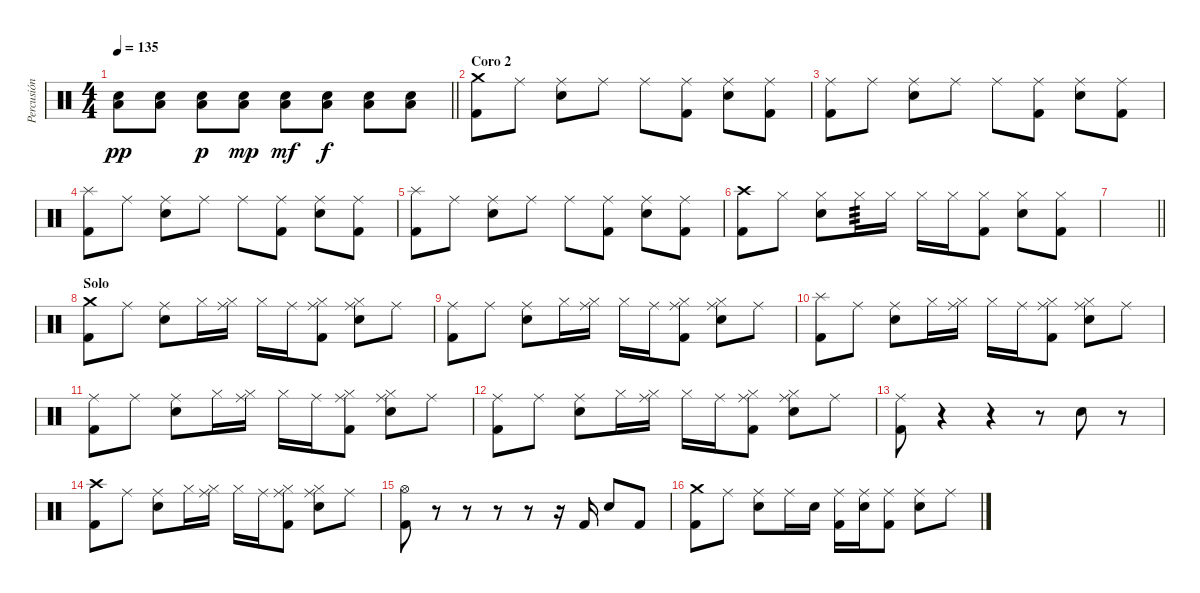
\track ("Percusión" "Percusión") {instrument percussion}
\staff {score}
\articulation defaults
\ts (4 4)
\tempo 135
\clef neutral
\barLineRight lightlight
\ks c
("Low Floor Tom (hit)" "Electric Snare (hit)").8{dy pp} ("Low Floor Tom (hit)" "Electric Snare (hit)").8 ("Low Floor Tom (hit)" "Electric Snare (hit)").8{dy p} ("Low Floor Tom (hit)" "Electric Snare (hit)").8{dy mp} ("Low Floor Tom (hit)" "Electric Snare (hit)").8{dy mf} ("Low Floor Tom (hit)" "Electric Snare (hit)").8{dy f} ("Low Floor Tom (hit)" "Electric Snare (hit)").8 ("Low Floor Tom (hit)" "Electric Snare (hit)").8 |
\section ("" "Coro 2")
("Crash medium (hit)" "Kick (hit) 2").8 "Ride (middle)".8 ("Ride (middle)" "Electric Snare (hit)").8 "Ride (middle)".8 "Ride (middle)".8 ("Ride (middle)" "Kick (hit) 2").8 ("Ride (middle)" "Electric Snare (hit)").8 ("Ride (middle)" "Kick (hit) 2").8 |
("Ride (middle)" "Kick (hit) 2").8 "Ride (middle)".8 ("Ride (middle)" "Electric Snare (hit)").8 "Ride (middle)".8 "Ride (middle)".8 ("Ride (middle)" "Kick (hit) 2").8 ("Ride (middle)" "Electric Snare (hit)").8 ("Ride (middle)" "Kick (hit) 2").8 |
("Splash (hit)" "Kick (hit) 2").8 "Ride (middle)".8 ("Ride (middle)" "Electric Snare (hit)").8 "Ride (middle)".8 "Ride (middle)".8 ("Ride (middle)" "Kick (hit) 2").8 ("Ride (middle)" "Electric Snare (hit)").8 ("Ride (middle)" "Kick (hit) 2").8 |
("Splash (hit)" "Kick (hit) 2").8 "Ride (middle)".8 ("Ride (middle)" "Electric Snare (hit)").8 "Ride (middle)".8 "Ride (middle)".8 ("Ride (middle)" "Kick (hit) 2").8 ("Ride (middle)" "Electric Snare (hit)").8 ("Ride (middle)" "Kick (hit) 2").8 |
("Crash high (hit)" "Kick (hit) 2").8 "Hi-Hat (closed)".8 ("Hi-Hat (closed)" "Electric Snare (hit)").8 "Hi-Hat (closed)".16{tp 3} "Hi-Hat (closed)".16 "Hi-Hat (closed)".16 "Hi-Hat (closed)".16 ("Hi-Hat (closed)" "Kick (hit) 2").8 ("Hi-Hat (closed)" "Electric Snare (hit)").8 ("Hi-Hat (closed)" "Kick (hit) 2").8 |
\barLineRight lightlight
|
\section ("" "Solo")
("Crash medium (hit)" "Kick (hit) 2").8 "Ride (middle)".8 ("Ride (middle)" "Electric Snare (hit)").8 "Hi-Hat (closed)".16 ("Hi-Hat (closed)" "Ride (middle)").16 "Hi-Hat (closed)".16 "Ride (middle)".16 ("Hi-Hat (closed)" "Ride (middle)" "Kick (hit) 2").8 ("Hi-Hat (closed)" "Ride (middle)" "Electric Snare (hit)").8 "Ride (middle)".8 |
("Ride (middle)" "Kick (hit) 2").8 "Ride (middle)".8 ("Ride (middle)" "Electric Snare (hit)").8 "Hi-Hat (closed)".16 ("Hi-Hat (closed)" "Ride (middle)").16 "Hi-Hat (closed)".16 "Ride (middle)".16 ("Hi-Hat (closed)" "Ride (middle)" "Kick (hit) 2").8 ("Hi-Hat (closed)" "Ride (middle)" "Electric Snare (hit)").8 "Ride (middle)".8 |
("Splash (hit)" "Kick (hit) 2").8 "Ride (middle)".8 ("Ride (middle)" "Electric Snare (hit)").8 "Hi-Hat (closed)".16 ("Hi-Hat (closed)" "Ride (middle)").16 "Hi-Hat (closed)".16 "Ride (middle)".16 ("Hi-Hat (closed)" "Ride (middle)" "Kick (hit) 2").8 ("Hi-Hat (closed)" "Ride (middle)" "Electric Snare (hit)").8 "Ride (middle)".8 |
("Ride (middle)" "Kick (hit) 2").8 "Ride (middle)".8 ("Ride (middle)" "Electric Snare (hit)").8 "Hi-Hat (closed)".16 ("Hi-Hat (closed)" "Ride (middle)").16 "Hi-Hat (closed)".16 "Ride (middle)".16 ("Hi-Hat (closed)" "Ride (middle)" "Kick (hit) 2").8 ("Hi-Hat (closed)" "Ride (middle)" "Electric Snare (hit)").8 "Ride (middle)".8 |
("Ride (middle)" "Kick (hit) 2").8 "Ride (middle)".8 ("Ride (middle)" "Electric Snare (hit)").8 "Hi-Hat (closed)".16 ("Hi-Hat (closed)" "Ride (middle)").16 "Hi-Hat (closed)".16 "Ride (middle)".16 ("Hi-Hat (closed)" "Ride (middle)" "Kick (hit) 2").8 ("Hi-Hat (closed)" "Ride (middle)" "Electric Snare (hit)").8 "Ride (middle)".8 |
("Ride (middle)" "Kick (hit) 2").8 r.4 r.4 r.8 "Electric Snare (hit)".8 r.8 |
("Crash high (hit)" "Kick (hit) 2").8 "Ride (middle)".8 ("Ride (middle)" "Electric Snare (hit)").8 "Hi-Hat (closed)".16 ("Hi-Hat (closed)" "Ride (middle)").16 "Hi-Hat (closed)".16 "Ride (middle)".16 ("Hi-Hat (closed)" "Ride (middle)" "Kick (hit) 2").8 ("Hi-Hat (closed)" "Ride (middle)" "Electric Snare (hit)").8 "Ride (middle)".8 |
("Hi-Hat (open)" "Kick (hit) 2").8 r.8 r.8 r.8 r.8 r.16 "Kick (hit) 2".16 "Electric Snare (hit)".8 "Kick (hit) 2".8 |
("Crash medium (hit)" "Kick (hit) 2").8 "Ride (middle)".8 ("Ride (middle)" "Electric Snare (hit)").8 "Ride (middle)".16 "Electric Snare (hit)".16 ("Ride (middle)" "Kick (hit) 2").16 ("Ride (middle)" "Electric Snare (hit)").16 ("Ride (middle)" "Kick (hit) 2").8 ("Ride (middle)" "Electric Snare (hit)").8 "Ride (middle)".8
